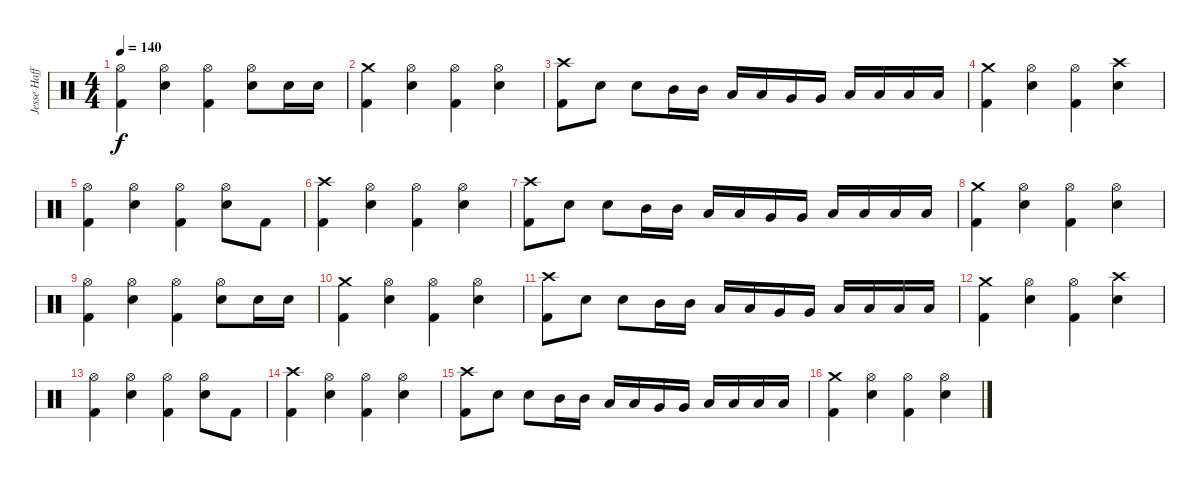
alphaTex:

\track ("Jesse Haff" "Jesse Haff") {instrument percussion}
\staff {score}
\articulation defaults
\ts (4 4)
\tempo 140
\clef neutral
\ks c
("Hi-Hat (open)" "Kick (hit) 2").4{dy f} ("Hi-Hat (open)" "Electric Snare (hit)").4 ("Hi-Hat (open)" "Kick (hit) 2").4 ("Hi-Hat (open)" "Electric Snare (hit)").8 "Electric Snare (hit)".16 "Electric Snare (hit)".16 |
("Crash medium (hit)" "Kick (hit) 2").4 ("Hi-Hat (open)" "Electric Snare (hit)").4 ("Hi-Hat (open)" "Kick (hit) 2").4 ("Hi-Hat (open)" "Electric Snare (hit)").4 |
("Crash high (hit)" "Kick (hit) 2").8 "Electric Snare (hit)".8 "Electric Snare (hit)".8 "Mid Tom (hit)".16 "Mid Tom (hit)".16 "Low Tom (hit)".16 "Low Tom (hit)".16 "Very Low Tom (hit)".16 "Very Low Tom (hit)".16 "Low Floor Tom (hit)".16 "Low Floor Tom (hit)".16 "Low Floor Tom (hit)".16 "Low Floor Tom (hit)".16 |
("Crash medium (hit)" "Kick (hit) 2").4 ("Hi-Hat (open)" "Electric Snare (hit)").4 ("Hi-Hat (open)" "Kick (hit) 2").4 ("Crash high (hit)" "Electric Snare (hit)").4 |
("Hi-Hat (open)" "Kick (hit) 2").4 ("Hi-Hat (open)" "Electric Snare (hit)").4 ("Hi-Hat (open)" "Kick (hit) 2").4 ("Hi-Hat (open)" "Electric Snare (hit)").8 "Kick (hit) 2".8 |
("Crash high (hit)" "Kick (hit) 2").4 ("Hi-Hat (open)" "Electric Snare (hit)").4 ("Hi-Hat (open)" "Kick (hit) 2").4 ("Hi-Hat (open)" "Electric Snare (hit)").4 |
("Crash high (hit)" "Kick (hit) 2").8 "Electric Snare (hit)".8 "Electric Snare (hit)".8 "Mid Tom (hit)".16 "Mid Tom (hit)".16 "Low Tom (hit)".16 "Low Tom (hit)".16 "Very Low Tom (hit)".16 "Very Low Tom (hit)".16 "Low Floor Tom (hit)".16 "Low Floor Tom (hit)".16 "Low Floor Tom (hit)".16 "Low Floor Tom (hit)".16 |
("Crash medium (hit)" "Kick (hit) 2").4 ("Hi-Hat (open)" "Electric Snare (hit)").4 ("Hi-Hat (open)" "Kick (hit) 2").4 ("Hi-Hat (open)" "Electric Snare (hit)").4 |
("Hi-Hat (open)" "Kick (hit) 2").4 ("Hi-Hat (open)" "Electric Snare (hit)").4 ("Hi-Hat (open)" "Kick (hit) 2").4 ("Hi-Hat (open)" "Electric Snare (hit)").8 "Electric Snare (hit)".16 "Electric Snare (hit)".16 |
("Crash medium (hit)" "Kick (hit) 2").4 ("Hi-Hat (open)" "Electric Snare (hit)").4 ("Hi-Hat (open)" "Kick (hit) 2").4 ("Hi-Hat (open)" "Electric Snare (hit)").4 |
("Crash high (hit)" "Kick (hit) 2").8 "Electric Snare (hit)".8 "Electric Snare (hit)".8 "Mid Tom (hit)".16 "Mid Tom (hit)".16 "Low Tom (hit)".16 "Low Tom (hit)".16 "Very Low Tom (hit)".16 "Very Low Tom (hit)".16 "Low Floor Tom (hit)".16 "Low Floor Tom (hit)".16 "Low Floor Tom (hit)".16 "Low Floor Tom (hit)".16 |
("Crash medium (hit)" "Kick (hit) 2").4 ("Hi-Hat (open)" "Electric Snare (hit)").4 ("Hi-Hat (open)" "Kick (hit) 2").4 ("Crash high (hit)" "Electric Snare (hit)").4 |
("Hi-Hat (open)" "Kick (hit) 2").4 ("Hi-Hat (open)" "Electric Snare (hit)").4 ("Hi-Hat (open)" "Kick (hit) 2").4 ("Hi-Hat (open)" "Electric Snare (hit)").8 "Kick (hit) 2".8 |
("Crash high (hit)" "Kick (hit) 2").4 ("Hi-Hat (open)" "Electric Snare (hit)").4 ("Hi-Hat (open)" "Kick (hit) 2").4 ("Hi-Hat (open)" "Electric Snare (hit)").4 |
("Crash high (hit)" "Kick (hit) 2").8 "Electric Snare (hit)".8 "Electric Snare (hit)".8 "Mid Tom (hit)".16 "Mid Tom (hit)".16 "Low Tom (hit)".16 "Low Tom (hit)".16 "Very Low Tom (hit)".16 "Very Low Tom (hit)".16 "Low Floor Tom (hit)".16 "Low Floor Tom (hit)".16 "Low Floor Tom (hit)".16 "Low Floor Tom (hit)".16 |
("Crash medium (hit)" "Kick (hit) 2").4 ("Hi-Hat (open)" "Electric Snare (hit)").4 ("Hi-Hat (open)" "Kick (hit) 2").4 ("Hi-Hat (open)" "Electric Snare (hit)").4
